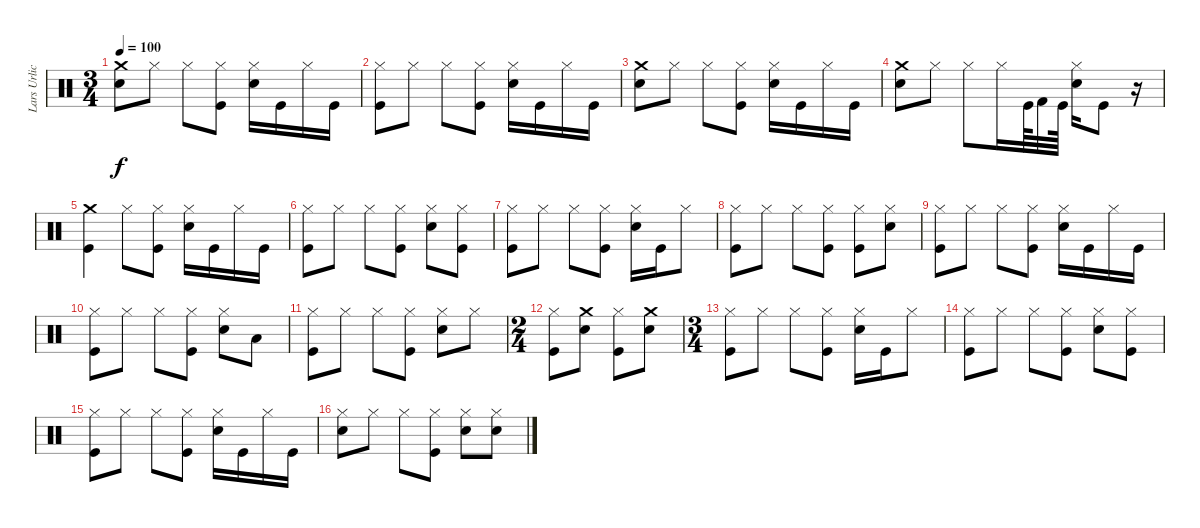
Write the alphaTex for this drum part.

\track ("Lars Urlich" "Lars Urlic") {instrument percussion}
\staff {score}
\articulation defaults
\ts (3 4)
\tempo 100
\clef neutral
\ks c
("Snare (hit) 2" "Crash medium (hit)").8{dy f} "Hi-Hat (closed)".8 "Hi-Hat (closed)".8 ("Kick (hit)" "Hi-Hat (closed)").8 ("Snare (hit) 2" "Hi-Hat (closed)").16 "Kick (hit)".16 "Hi-Hat (closed)".16 "Kick (hit)".16 |
("Hi-Hat (closed)" "Kick (hit)").8 "Hi-Hat (closed)".8 "Hi-Hat (closed)".8 ("Kick (hit)" "Hi-Hat (closed)").8 ("Hi-Hat (closed)" "Snare (hit) 2").16 "Kick (hit)".16 "Hi-Hat (closed)".16 "Kick (hit)".16 |
("Snare (hit) 2" "Crash medium (hit)").8 "Hi-Hat (closed)".8 "Hi-Hat (closed)".8 ("Kick (hit)" "Hi-Hat (closed)").8 ("Snare (hit) 2" "Hi-Hat (closed)").16 "Kick (hit)".16 "Hi-Hat (closed)".16 "Kick (hit)".16 |
("Crash medium (hit)" "Snare (hit) 2").8 "Hi-Hat (closed)".8 "Hi-Hat (closed)".8 "Hi-Hat (closed)".16 "Kick (hit)".64 "Kick (hit) 2".32 "Kick (hit)".64 ("Snare (hit) 2" "Hi-Hat (closed)").16 "Kick (hit)".8 r.16 |
("Kick (hit)" "Crash medium (hit)").4 "Hi-Hat (closed)".8 ("Kick (hit)" "Hi-Hat (closed)").8 ("Hi-Hat (closed)" "Snare (hit) 2").16 "Kick (hit)".16 "Hi-Hat (closed)".16 "Kick (hit)".16 |
("Kick (hit)" "Hi-Hat (closed)").8 "Hi-Hat (closed)".8 "Hi-Hat (closed)".8 ("Hi-Hat (closed)" "Kick (hit)").8 ("Snare (hit) 2" "Hi-Hat (closed)").8 ("Hi-Hat (closed)" "Kick (hit)").8 |
("Hi-Hat (closed)" "Kick (hit)").8 "Hi-Hat (closed)".8 "Hi-Hat (closed)".8 ("Hi-Hat (closed)" "Kick (hit)").8 ("Snare (hit) 2" "Hi-Hat (closed)").16 "Kick (hit)".16 "Hi-Hat (closed)".8 |
("Hi-Hat (closed)" "Kick (hit)").8 "Hi-Hat (closed)".8 "Hi-Hat (closed)".8 ("Kick (hit)" "Hi-Hat (closed)").8 ("Hi-Hat (closed)" "Kick (hit)").8 ("Snare (hit) 2" "Hi-Hat (closed)").8 |
("Kick (hit)" "Hi-Hat (closed)").8 "Hi-Hat (closed)".8 "Hi-Hat (closed)".8 ("Kick (hit)" "Hi-Hat (closed)").8 ("Snare (hit) 2" "Hi-Hat (closed)").16 "Kick (hit)".16 "Hi-Hat (closed)".16 "Kick (hit)".16 |
("Hi-Hat (closed)" "Kick (hit)").8 "Hi-Hat (closed)".8 "Hi-Hat (closed)".8 ("Hi-Hat (closed)" "Kick (hit)").8 ("Snare (hit) 2" "Hi-Hat (closed)").8 "Low Tom (hit)".8 |
("Hi-Hat (closed)" "Kick (hit)").8 "Hi-Hat (closed)".8 "Hi-Hat (closed)".8 ("Kick (hit)" "Hi-Hat (closed)").8 ("Snare (hit) 2" "Hi-Hat (closed)").8 "Hi-Hat (closed)".8 |
\ts (2 4)
("Hi-Hat (closed)" "Kick (hit)").8 ("Snare (hit) 2" "Crash medium (hit)").8 ("Hi-Hat (closed)" "Kick (hit)").8 ("Crash medium (hit)" "Snare (hit) 2").8 |
\ts (3 4)
("Hi-Hat (closed)" "Kick (hit)").8 "Hi-Hat (closed)".8 "Hi-Hat (closed)".8 ("Hi-Hat (closed)" "Kick (hit)").8 ("Snare (hit) 2" "Hi-Hat (closed)").16 "Kick (hit)".16 "Hi-Hat (closed)".8 |
("Hi-Hat (closed)" "Kick (hit)").8 "Hi-Hat (closed)".8 "Hi-Hat (closed)".8 ("Kick (hit)" "Hi-Hat (closed)").8 ("Hi-Hat (closed)" "Snare (hit) 2").8 ("Kick (hit)" "Hi-Hat (closed)").8 |
("Hi-Hat (closed)" "Kick (hit)").8 "Hi-Hat (closed)".8 "Hi-Hat (closed)".8 ("Hi-Hat (closed)" "Kick (hit)").8 ("Snare (hit) 2" "Hi-Hat (closed)").16 "Kick (hit)".16 "Hi-Hat (closed)".16 "Kick (hit)".16 |
("Hi-Hat (closed)" "Snare (hit) 2").8 "Hi-Hat (closed)".8 "Hi-Hat (closed)".8 ("Kick (hit)" "Hi-Hat (closed)").8 ("Hi-Hat (closed)" "Snare (hit) 2").8 ("Snare (hit) 2" "Hi-Hat (closed)").8
